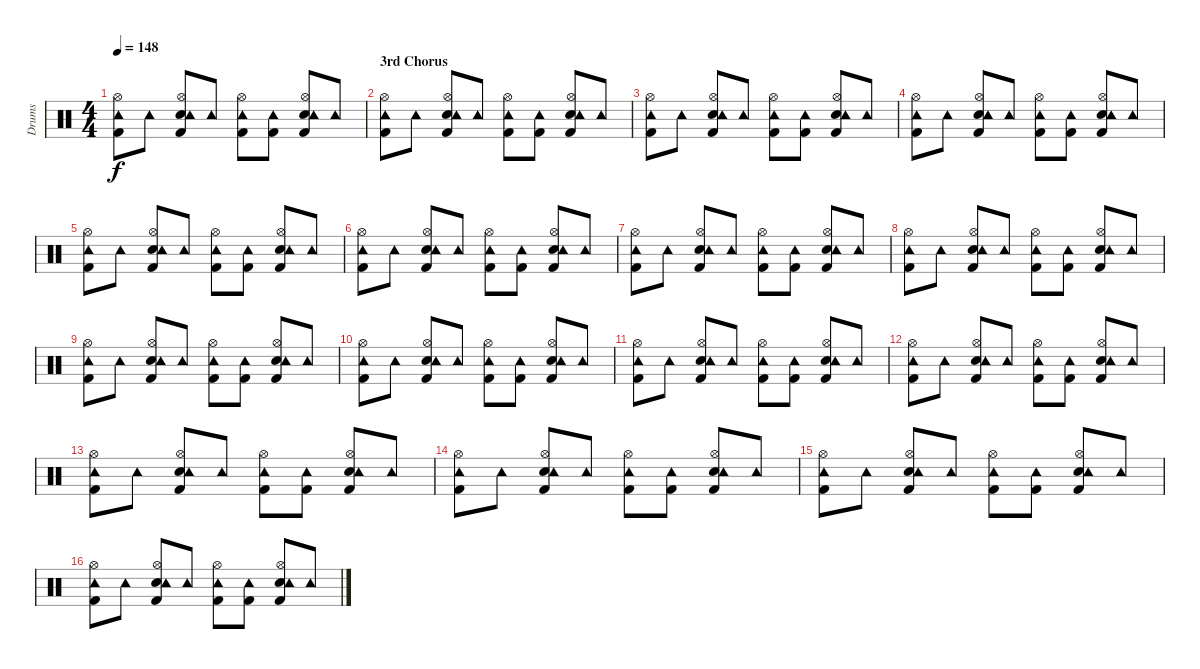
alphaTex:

\track ("Drums" "Drums") {instrument percussion}
\staff {score}
\articulation defaults
\ts (4 4)
\tempo 148
\clef neutral
\ks c
("Kick (hit) 2" "Tambourine (hit)" "Hi-Hat (open)").8{dy f} "Tambourine (hit)".8 ("Kick (hit) 2" "Electric Snare (hit)" "Tambourine (hit)" "Hi-Hat (open)").8 "Tambourine (hit)".8 ("Kick (hit) 2" "Tambourine (hit)" "Hi-Hat (open)").8 ("Kick (hit) 2" "Tambourine (hit)").8 ("Kick (hit) 2" "Electric Snare (hit)" "Tambourine (hit)" "Hi-Hat (open)").8 "Tambourine (hit)".8 |
\section ("" "3rd Chorus")
("Kick (hit) 2" "Tambourine (hit)" "Hi-Hat (open)").8 "Tambourine (hit)".8 ("Kick (hit) 2" "Electric Snare (hit)" "Tambourine (hit)" "Hi-Hat (open)").8 "Tambourine (hit)".8 ("Kick (hit) 2" "Tambourine (hit)" "Hi-Hat (open)").8 ("Kick (hit) 2" "Tambourine (hit)").8 ("Kick (hit) 2" "Electric Snare (hit)" "Tambourine (hit)" "Hi-Hat (open)").8 "Tambourine (hit)".8 |
("Kick (hit) 2" "Tambourine (hit)" "Hi-Hat (open)").8 "Tambourine (hit)".8 ("Kick (hit) 2" "Electric Snare (hit)" "Tambourine (hit)" "Hi-Hat (open)").8 "Tambourine (hit)".8 ("Kick (hit) 2" "Tambourine (hit)" "Hi-Hat (open)").8 ("Kick (hit) 2" "Tambourine (hit)").8 ("Kick (hit) 2" "Electric Snare (hit)" "Tambourine (hit)" "Hi-Hat (open)").8 "Tambourine (hit)".8 |
("Kick (hit) 2" "Tambourine (hit)" "Hi-Hat (open)").8 "Tambourine (hit)".8 ("Kick (hit) 2" "Electric Snare (hit)" "Tambourine (hit)" "Hi-Hat (open)").8 "Tambourine (hit)".8 ("Kick (hit) 2" "Tambourine (hit)" "Hi-Hat (open)").8 ("Kick (hit) 2" "Tambourine (hit)").8 ("Kick (hit) 2" "Electric Snare (hit)" "Tambourine (hit)" "Hi-Hat (open)").8 "Tambourine (hit)".8 |
("Kick (hit) 2" "Tambourine (hit)" "Hi-Hat (open)").8 "Tambourine (hit)".8 ("Kick (hit) 2" "Electric Snare (hit)" "Tambourine (hit)" "Hi-Hat (open)").8 "Tambourine (hit)".8 ("Kick (hit) 2" "Tambourine (hit)" "Hi-Hat (open)").8 ("Kick (hit) 2" "Tambourine (hit)").8 ("Kick (hit) 2" "Electric Snare (hit)" "Tambourine (hit)" "Hi-Hat (open)").8 "Tambourine (hit)".8 |
("Kick (hit) 2" "Tambourine (hit)" "Hi-Hat (open)").8 "Tambourine (hit)".8 ("Kick (hit) 2" "Electric Snare (hit)" "Tambourine (hit)" "Hi-Hat (open)").8 "Tambourine (hit)".8 ("Kick (hit) 2" "Tambourine (hit)" "Hi-Hat (open)").8 ("Kick (hit) 2" "Tambourine (hit)").8 ("Kick (hit) 2" "Electric Snare (hit)" "Tambourine (hit)" "Hi-Hat (open)").8 "Tambourine (hit)".8 |
("Kick (hit) 2" "Tambourine (hit)" "Hi-Hat (open)").8 "Tambourine (hit)".8 ("Kick (hit) 2" "Electric Snare (hit)" "Tambourine (hit)" "Hi-Hat (open)").8 "Tambourine (hit)".8 ("Kick (hit) 2" "Tambourine (hit)" "Hi-Hat (open)").8 ("Kick (hit) 2" "Tambourine (hit)").8 ("Kick (hit) 2" "Electric Snare (hit)" "Tambourine (hit)" "Hi-Hat (open)").8 "Tambourine (hit)".8 |
("Kick (hit) 2" "Tambourine (hit)" "Hi-Hat (open)").8 "Tambourine (hit)".8 ("Kick (hit) 2" "Electric Snare (hit)" "Tambourine (hit)" "Hi-Hat (open)").8 "Tambourine (hit)".8 ("Kick (hit) 2" "Tambourine (hit)" "Hi-Hat (open)").8 ("Kick (hit) 2" "Tambourine (hit)").8 ("Kick (hit) 2" "Electric Snare (hit)" "Tambourine (hit)" "Hi-Hat (open)").8 "Tambourine (hit)".8 |
("Kick (hit) 2" "Tambourine (hit)" "Hi-Hat (open)").8 "Tambourine (hit)".8 ("Kick (hit) 2" "Electric Snare (hit)" "Tambourine (hit)" "Hi-Hat (open)").8 "Tambourine (hit)".8 ("Kick (hit) 2" "Tambourine (hit)" "Hi-Hat (open)").8 ("Kick (hit) 2" "Tambourine (hit)").8 ("Kick (hit) 2" "Electric Snare (hit)" "Tambourine (hit)" "Hi-Hat (open)").8 "Tambourine (hit)".8 |
("Kick (hit) 2" "Tambourine (hit)" "Hi-Hat (open)").8 "Tambourine (hit)".8 ("Kick (hit) 2" "Electric Snare (hit)" "Tambourine (hit)" "Hi-Hat (open)").8 "Tambourine (hit)".8 ("Kick (hit) 2" "Tambourine (hit)" "Hi-Hat (open)").8 ("Kick (hit) 2" "Tambourine (hit)").8 ("Kick (hit) 2" "Electric Snare (hit)" "Tambourine (hit)" "Hi-Hat (open)").8 "Tambourine (hit)".8 |
("Kick (hit) 2" "Tambourine (hit)" "Hi-Hat (open)").8 "Tambourine (hit)".8 ("Kick (hit) 2" "Electric Snare (hit)" "Tambourine (hit)" "Hi-Hat (open)").8 "Tambourine (hit)".8 ("Kick (hit) 2" "Tambourine (hit)" "Hi-Hat (open)").8 ("Kick (hit) 2" "Tambourine (hit)").8 ("Kick (hit) 2" "Electric Snare (hit)" "Tambourine (hit)" "Hi-Hat (open)").8 "Tambourine (hit)".8 |
("Kick (hit) 2" "Tambourine (hit)" "Hi-Hat (open)").8 "Tambourine (hit)".8 ("Kick (hit) 2" "Electric Snare (hit)" "Tambourine (hit)" "Hi-Hat (open)").8 "Tambourine (hit)".8 ("Kick (hit) 2" "Tambourine (hit)" "Hi-Hat (open)").8 ("Kick (hit) 2" "Tambourine (hit)").8 ("Kick (hit) 2" "Electric Snare (hit)" "Tambourine (hit)" "Hi-Hat (open)").8 "Tambourine (hit)".8 |
("Kick (hit) 2" "Tambourine (hit)" "Hi-Hat (open)").8 "Tambourine (hit)".8 ("Kick (hit) 2" "Electric Snare (hit)" "Tambourine (hit)" "Hi-Hat (open)").8 "Tambourine (hit)".8 ("Kick (hit) 2" "Tambourine (hit)" "Hi-Hat (open)").8 ("Kick (hit) 2" "Tambourine (hit)").8 ("Kick (hit) 2" "Electric Snare (hit)" "Tambourine (hit)" "Hi-Hat (open)").8 "Tambourine (hit)".8 |
("Kick (hit) 2" "Tambourine (hit)" "Hi-Hat (open)").8 "Tambourine (hit)".8 ("Kick (hit) 2" "Electric Snare (hit)" "Tambourine (hit)" "Hi-Hat (open)").8 "Tambourine (hit)".8 ("Kick (hit) 2" "Tambourine (hit)" "Hi-Hat (open)").8 ("Kick (hit) 2" "Tambourine (hit)").8 ("Kick (hit) 2" "Electric Snare (hit)" "Tambourine (hit)" "Hi-Hat (open)").8 "Tambourine (hit)".8 |
("Kick (hit) 2" "Tambourine (hit)" "Hi-Hat (open)").8 "Tambourine (hit)".8 ("Kick (hit) 2" "Electric Snare (hit)" "Tambourine (hit)" "Hi-Hat (open)").8 "Tambourine (hit)".8 ("Kick (hit) 2" "Tambourine (hit)" "Hi-Hat (open)").8 ("Kick (hit) 2" "Tambourine (hit)").8 ("Kick (hit) 2" "Electric Snare (hit)" "Tambourine (hit)" "Hi-Hat (open)").8 "Tambourine (hit)".8 |
("Kick (hit) 2" "Tambourine (hit)" "Hi-Hat (open)").8 "Tambourine (hit)".8 ("Kick (hit) 2" "Electric Snare (hit)" "Tambourine (hit)" "Hi-Hat (open)").8 "Tambourine (hit)".8 ("Kick (hit) 2" "Tambourine (hit)" "Hi-Hat (open)").8 ("Kick (hit) 2" "Tambourine (hit)").8 ("Kick (hit) 2" "Electric Snare (hit)" "Tambourine (hit)" "Hi-Hat (open)").8 "Tambourine (hit)".8
